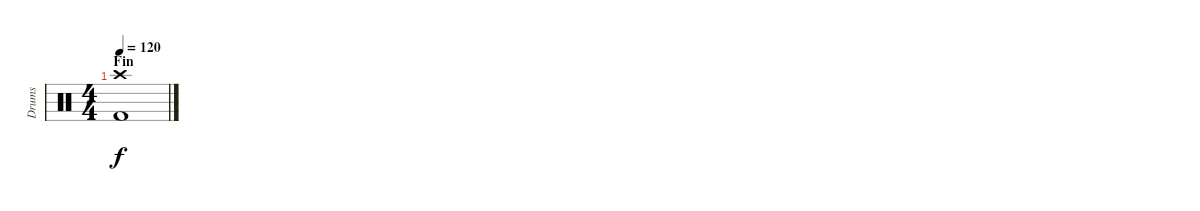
\track ("Drums" "Drums") {instrument percussion}
\staff {score}
\articulation defaults
\ts (4 4)
\section ("" "Fin")
\tempo 120
\clef neutral
\ks c
("Crash high (hit)" "Kick (hit) 2").1{dy f}
